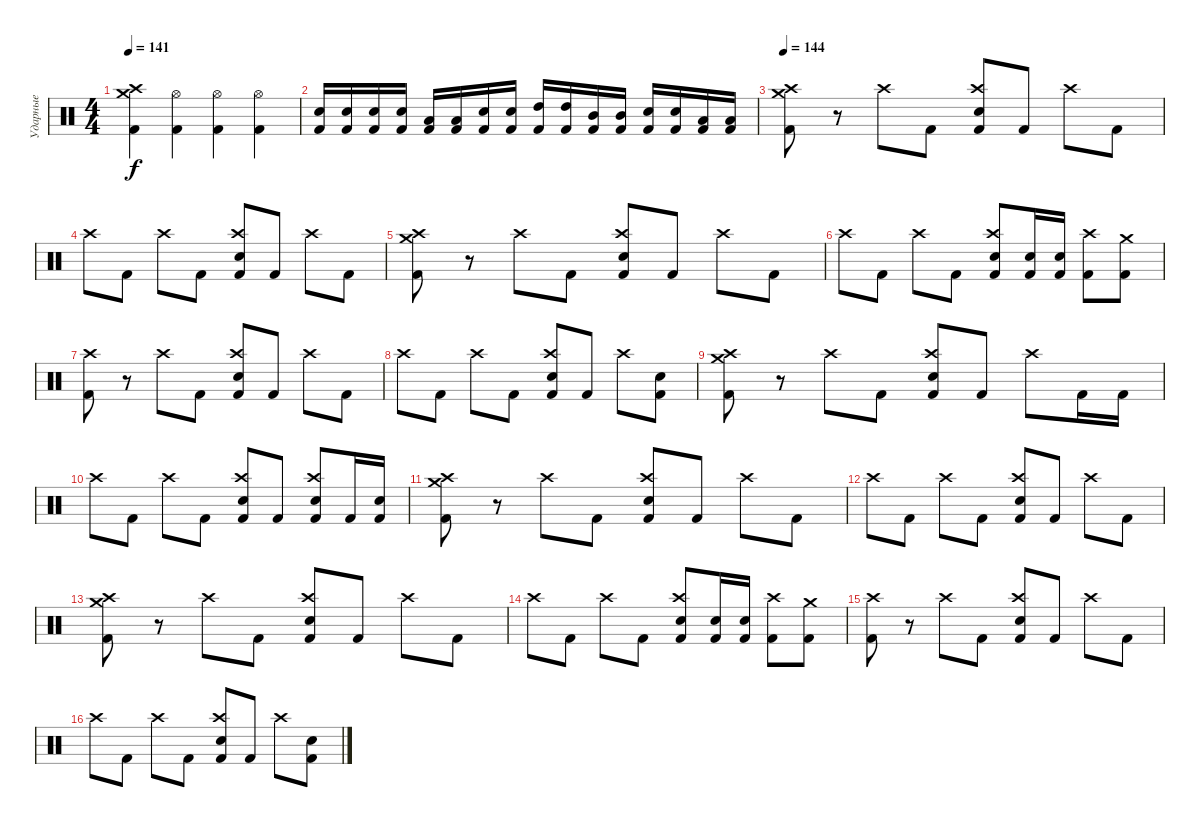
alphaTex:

\track ("Ударные" "Ударные") {instrument percussion}
\staff {score}
\articulation defaults
\ts (4 4)
\tempo 141
\clef neutral
\ks c
("Kick (hit) 2" "Crash medium (hit)" "Crash high (hit)").4{dy f} ("Kick (hit) 2" "Hi-Hat (open)").4 ("Kick (hit) 2" "Hi-Hat (open)").4 ("Kick (hit) 2" "Hi-Hat (open)").4 |
("Kick (hit) 2" "Electric Snare (hit)").16 ("Kick (hit) 2" "Electric Snare (hit)").16 ("Kick (hit) 2" "Electric Snare (hit)").16 ("Kick (hit) 2" "Electric Snare (hit)").16 ("Kick (hit) 2" "Low Tom (hit)").16 ("Kick (hit) 2" "Low Tom (hit)").16 ("Kick (hit) 2" "Electric Snare (hit)").16 ("Kick (hit) 2" "Electric Snare (hit)").16 ("Kick (hit) 2" "High Tom (hit)").16 ("Kick (hit) 2" "High Tom (hit)").16 ("Kick (hit) 2" "Mid Tom (hit)").16 ("Kick (hit) 2" "Mid Tom (hit)").16 ("Kick (hit) 2" "Electric Snare (hit)").16 ("Kick (hit) 2" "Electric Snare (hit)").16 ("Kick (hit) 2" "Low Tom (hit)").16 ("Kick (hit) 2" "Low Tom (hit)").16 |
\tempo 144
("Crash high (hit)" "Crash medium (hit)" "Kick (hit) 2").8 r.8 "Crash high (hit)".8 "Kick (hit) 2".8 ("Crash high (hit)" "Electric Snare (hit)" "Kick (hit) 2").8 "Kick (hit) 2".8 "Crash high (hit)".8 "Kick (hit) 2".8 |
"Crash high (hit)".8 "Kick (hit) 2".8 "Crash high (hit)".8 "Kick (hit) 2".8 ("Crash high (hit)" "Electric Snare (hit)" "Kick (hit) 2").8 "Kick (hit) 2".8 "Crash high (hit)".8 "Kick (hit) 2".8 |
("Crash high (hit)" "Crash medium (hit)" "Kick (hit) 2").8 r.8 "Crash high (hit)".8 "Kick (hit) 2".8 ("Crash high (hit)" "Electric Snare (hit)" "Kick (hit) 2").8 "Kick (hit) 2".8 "Crash high (hit)".8 "Kick (hit) 2".8 |
"Crash high (hit)".8 "Kick (hit) 2".8 "Crash high (hit)".8 "Kick (hit) 2".8 ("Crash high (hit)" "Electric Snare (hit)" "Kick (hit) 2").8 ("Electric Snare (hit)" "Kick (hit) 2").16 ("Electric Snare (hit)" "Kick (hit) 2").16 ("Crash high (hit)" "Kick (hit) 2").8 ("Crash medium (hit)" "Kick (hit) 2").8 |
("Crash high (hit)" "Kick (hit) 2").8 r.8 "Crash high (hit)".8 "Kick (hit) 2".8 ("Crash high (hit)" "Electric Snare (hit)" "Kick (hit) 2").8 "Kick (hit) 2".8 "Crash high (hit)".8 "Kick (hit) 2".8 |
"Crash high (hit)".8 "Kick (hit) 2".8 "Crash high (hit)".8 "Kick (hit) 2".8 ("Crash high (hit)" "Electric Snare (hit)" "Kick (hit) 2").8 "Kick (hit) 2".8 "Crash high (hit)".8 ("Electric Snare (hit)" "Kick (hit) 2").8 |
("Crash high (hit)" "Crash medium (hit)" "Kick (hit) 2").8 r.8 "Crash high (hit)".8 "Kick (hit) 2".8 ("Crash high (hit)" "Electric Snare (hit)" "Kick (hit) 2").8 "Kick (hit) 2".8 "Crash high (hit)".8 "Kick (hit) 2".16 "Kick (hit) 2".16 |
"Crash high (hit)".8 "Kick (hit) 2".8 "Crash high (hit)".8 "Kick (hit) 2".8 ("Crash high (hit)" "Electric Snare (hit)" "Kick (hit) 2").8 "Kick (hit) 2".8 ("Crash high (hit)" "Electric Snare (hit)" "Kick (hit) 2").8 "Kick (hit) 2".16 ("Electric Snare (hit)" "Kick (hit) 2").16 |
("Crash high (hit)" "Crash medium (hit)" "Kick (hit) 2").8 r.8 "Crash high (hit)".8 "Kick (hit) 2".8 ("Crash high (hit)" "Electric Snare (hit)" "Kick (hit) 2").8 "Kick (hit) 2".8 "Crash high (hit)".8 "Kick (hit) 2".8 |
"Crash high (hit)".8 "Kick (hit) 2".8 "Crash high (hit)".8 "Kick (hit) 2".8 ("Crash high (hit)" "Electric Snare (hit)" "Kick (hit) 2").8 "Kick (hit) 2".8 "Crash high (hit)".8 "Kick (hit) 2".8 |
("Crash high (hit)" "Crash medium (hit)" "Kick (hit) 2").8 r.8 "Crash high (hit)".8 "Kick (hit) 2".8 ("Crash high (hit)" "Electric Snare (hit)" "Kick (hit) 2").8 "Kick (hit) 2".8 "Crash high (hit)".8 "Kick (hit) 2".8 |
"Crash high (hit)".8 "Kick (hit) 2".8 "Crash high (hit)".8 "Kick (hit) 2".8 ("Crash high (hit)" "Electric Snare (hit)" "Kick (hit) 2").8 ("Electric Snare (hit)" "Kick (hit) 2").16 ("Electric Snare (hit)" "Kick (hit) 2").16 ("Crash high (hit)" "Kick (hit) 2").8 ("Crash medium (hit)" "Kick (hit) 2").8 |
("Crash high (hit)" "Kick (hit) 2").8 r.8 "Crash high (hit)".8 "Kick (hit) 2".8 ("Crash high (hit)" "Electric Snare (hit)" "Kick (hit) 2").8 "Kick (hit) 2".8 "Crash high (hit)".8 "Kick (hit) 2".8 |
"Crash high (hit)".8 "Kick (hit) 2".8 "Crash high (hit)".8 "Kick (hit) 2".8 ("Crash high (hit)" "Electric Snare (hit)" "Kick (hit) 2").8 "Kick (hit) 2".8 "Crash high (hit)".8 ("Electric Snare (hit)" "Kick (hit) 2").8
